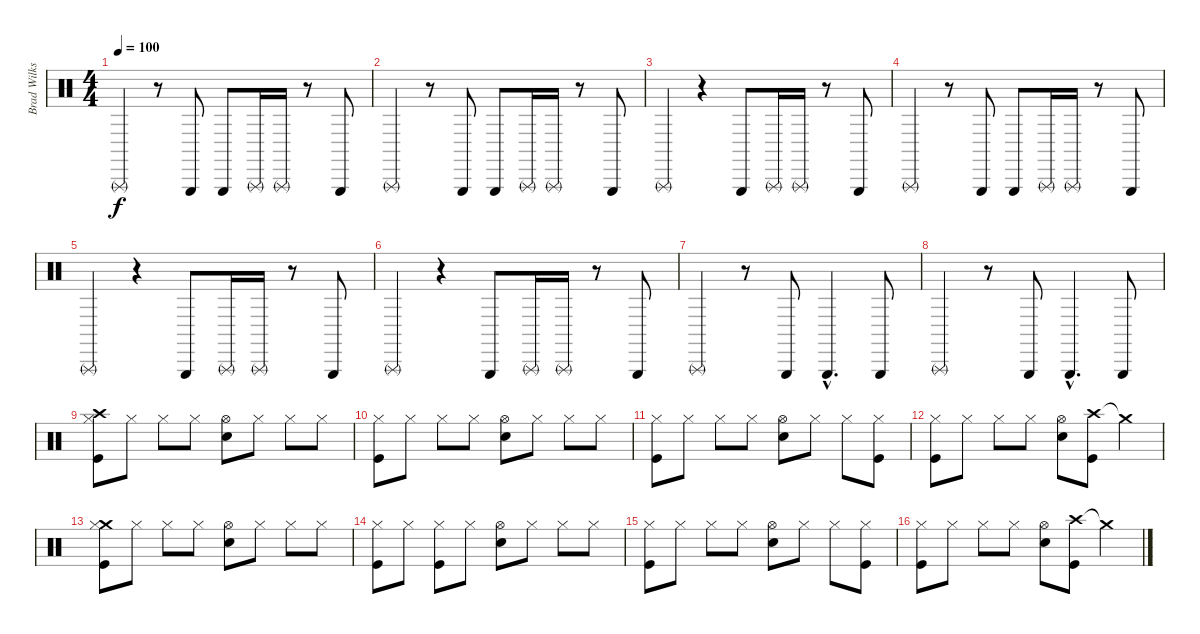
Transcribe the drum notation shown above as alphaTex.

\track ("Brad Wilks (Percussion)" "Brad Wilks") {instrument percussion}
\staff {score}
\articulation defaults
\ts (4 4)
\tempo 100
\clef neutral
\ks c "Triangle (rnute)".4{dy f}
r.8 "Triangle (hit)".8 "Triangle (hit)".8 "Triangle (rnute)".16 "Triangle (rnute)".16 r.8 "Triangle (hit)".8 |
"Triangle (rnute)".4 r.8 "Triangle (hit)".8 "Triangle (hit)".8 "Triangle (rnute)".16 "Triangle (rnute)".16 r.8 "Triangle (hit)".8 |
"Triangle (rnute)".4 r.4 "Triangle (hit)".8 "Triangle (rnute)".16 "Triangle (rnute)".16 r.8 "Triangle (hit)".8 |
"Triangle (rnute)".4 r.8 "Triangle (hit)".8 "Triangle (hit)".8 "Triangle (rnute)".16 "Triangle (rnute)".16 r.8 "Triangle (hit)".8 |
"Triangle (rnute)".4 r.4 "Triangle (hit)".8 "Triangle (rnute)".16 "Triangle (rnute)".16 r.8 "Triangle (hit)".8 |
"Triangle (rnute)".4 r.4 "Triangle (hit)".8 "Triangle (rnute)".16 "Triangle (rnute)".16 r.8 "Triangle (hit)".8 |
"Triangle (rnute)".4 r.8 "Triangle (hit)".8 "Triangle (hit)"{hac}.4{d} "Triangle (hit)".8 |
"Triangle (rnute)".4 r.8 "Triangle (hit)".8 "Triangle (hit)"{hac}.4{d} "Triangle (hit)".8 |
("Crash high (hit)" "Hi-Hat (closed)" "Kick (hit)").8 "Hi-Hat (closed)".8 "Hi-Hat (closed)".8 "Hi-Hat (closed)".8 ("Hi-Hat (open)" "Electric Snare (hit)").8 "Hi-Hat (closed)".8 "Hi-Hat (closed)".8 "Hi-Hat (closed)".8 |
("Hi-Hat (closed)" "Kick (hit)").8 "Hi-Hat (closed)".8 "Hi-Hat (closed)".8 "Hi-Hat (closed)".8 ("Hi-Hat (open)" "Electric Snare (hit)").8 "Hi-Hat (closed)".8 "Hi-Hat (closed)".8 "Hi-Hat (closed)".8 |
("Hi-Hat (closed)" "Kick (hit)").8 "Hi-Hat (closed)".8 "Hi-Hat (closed)".8 "Hi-Hat (closed)".8 ("Hi-Hat (open)" "Electric Snare (hit)").8 "Hi-Hat (closed)".8 "Hi-Hat (closed)".8 ("Hi-Hat (closed)" "Kick (hit)").8 |
("Hi-Hat (closed)" "Kick (hit)").8 "Hi-Hat (closed)".8 "Hi-Hat (closed)".8 "Hi-Hat (closed)".8 ("Hi-Hat (open)" "Electric Snare (hit)").8 ("Crash high (hit)" "Kick (hit)").8 "Crash medium (hit)"{t}.4 |
("Crash medium (hit)" "Hi-Hat (closed)" "Kick (hit)").8 "Hi-Hat (closed)".8 "Hi-Hat (closed)".8 "Hi-Hat (closed)".8 ("Hi-Hat (open)" "Electric Snare (hit)").8 "Hi-Hat (closed)".8 "Hi-Hat (closed)".8 "Hi-Hat (closed)".8 |
("Hi-Hat (closed)" "Kick (hit)").8 "Hi-Hat (closed)".8 ("Hi-Hat (closed)" "Kick (hit)").8 "Hi-Hat (closed)".8 ("Hi-Hat (open)" "Electric Snare (hit)").8 "Hi-Hat (closed)".8 "Hi-Hat (closed)".8 "Hi-Hat (closed)".8 |
("Hi-Hat (closed)" "Kick (hit)").8 "Hi-Hat (closed)".8 "Hi-Hat (closed)".8 "Hi-Hat (closed)".8 ("Hi-Hat (open)" "Electric Snare (hit)").8 "Hi-Hat (closed)".8 "Hi-Hat (closed)".8 ("Hi-Hat (closed)" "Kick (hit)").8 |
("Hi-Hat (closed)" "Kick (hit)").8 "Hi-Hat (closed)".8 "Hi-Hat (closed)".8 "Hi-Hat (closed)".8 ("Hi-Hat (open)" "Electric Snare (hit)").8 ("Crash high (hit)" "Kick (hit)").8 "Crash medium (hit)"{t}.4
